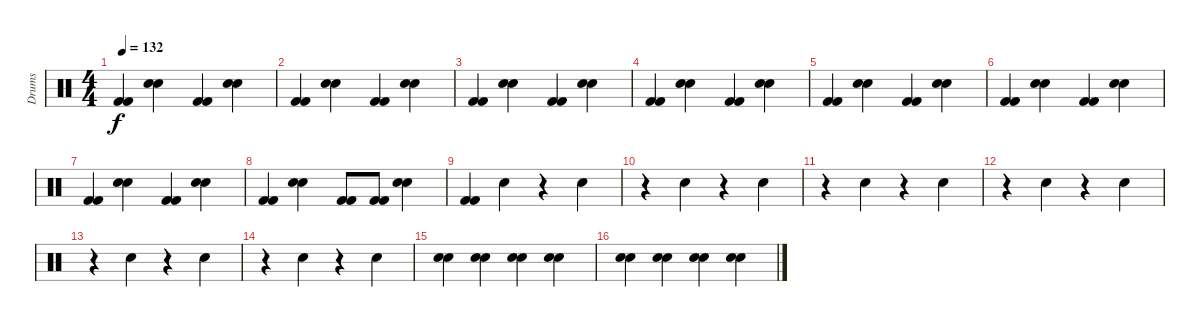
\track ("Drums" "Drums") {instrument percussion}
\staff {score}
\articulation defaults
\ts (4 4)
\tempo 132
\clef neutral
\ks c
("Kick (hit) 2" "Kick (hit) 2").4{dy f} ("Snare (hit) 2" "Snare (hit) 2").4 ("Kick (hit) 2" "Kick (hit) 2").4 ("Snare (hit) 2" "Snare (hit) 2").4 |
("Kick (hit) 2" "Kick (hit) 2").4 ("Snare (hit) 2" "Snare (hit) 2").4 ("Kick (hit) 2" "Kick (hit) 2").4 ("Snare (hit) 2" "Snare (hit) 2").4 |
("Kick (hit) 2" "Kick (hit) 2").4 ("Snare (hit) 2" "Snare (hit) 2").4 ("Kick (hit) 2" "Kick (hit) 2").4 ("Snare (hit) 2" "Snare (hit) 2").4 |
("Kick (hit) 2" "Kick (hit) 2").4 ("Snare (hit) 2" "Snare (hit) 2").4 ("Kick (hit) 2" "Kick (hit) 2").4 ("Snare (hit) 2" "Snare (hit) 2").4 |
("Kick (hit) 2" "Kick (hit) 2").4 ("Snare (hit) 2" "Snare (hit) 2").4 ("Kick (hit) 2" "Kick (hit) 2").4 ("Snare (hit) 2" "Snare (hit) 2").4 |
("Kick (hit) 2" "Kick (hit) 2").4 ("Snare (hit) 2" "Snare (hit) 2").4 ("Kick (hit) 2" "Kick (hit) 2").4 ("Snare (hit) 2" "Snare (hit) 2").4 |
("Kick (hit) 2" "Kick (hit) 2").4 ("Snare (hit) 2" "Snare (hit) 2").4 ("Kick (hit) 2" "Kick (hit) 2").4 ("Snare (hit) 2" "Snare (hit) 2").4 |
("Kick (hit) 2" "Kick (hit) 2").4 ("Snare (hit) 2" "Snare (hit) 2").4 ("Kick (hit) 2" "Kick (hit) 2").8 ("Kick (hit) 2" "Kick (hit) 2").8 ("Snare (hit) 2" "Snare (hit) 2").4 |
("Kick (hit) 2" "Kick (hit) 2").4 "Snare (hit) 2".4 r.4 "Snare (hit) 2".4 |
r.4 "Snare (hit) 2".4 r.4 "Snare (hit) 2".4 |
r.4 "Snare (hit) 2".4 r.4 "Snare (hit) 2".4 |
r.4 "Snare (hit) 2".4 r.4 "Snare (hit) 2".4 |
r.4 "Snare (hit) 2".4 r.4 "Snare (hit) 2".4 |
r.4 "Snare (hit) 2".4 r.4 "Snare (hit) 2".4 |
("Snare (hit) 2" "Electric Snare (hit)").4 ("Snare (hit) 2" "Electric Snare (hit)").4 ("Snare (hit) 2" "Electric Snare (hit)").4 ("Snare (hit) 2" "Electric Snare (hit)").4 |
("Snare (hit) 2" "Electric Snare (hit)").4 ("Snare (hit) 2" "Electric Snare (hit)").4 ("Snare (hit) 2" "Electric Snare (hit)").4 ("Snare (hit) 2" "Electric Snare (hit)").4
